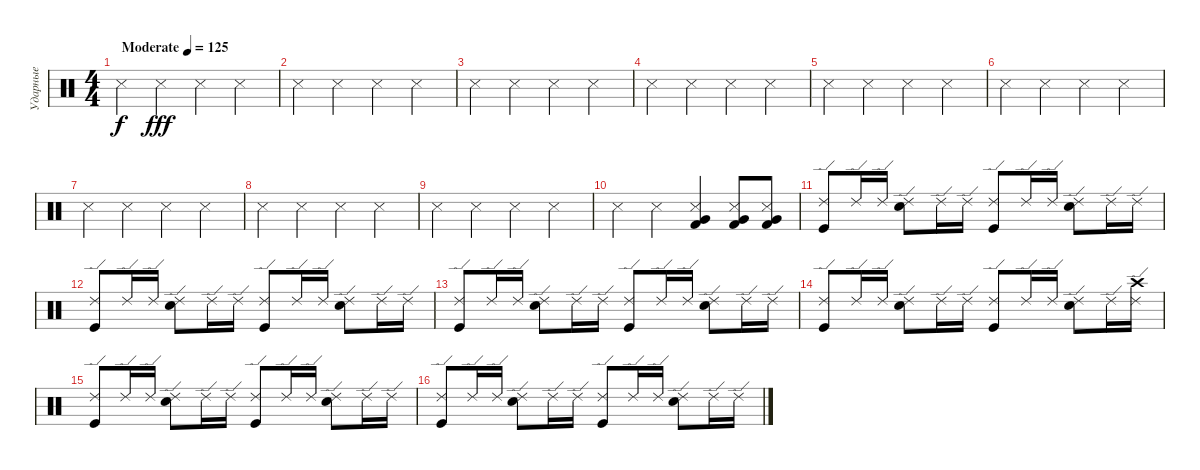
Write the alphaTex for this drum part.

\track ("Ударные" "Ударные") {instrument percussion}
\staff {score}
\articulation defaults
\ts (4 4)
\tempo (125 "Moderate")
\clef neutral
\ks c "Metronome (hit)".4{dy f} "Metronome (hit)".4{dy fff} "Metronome (hit)".4 "Metronome (hit)".4
|
"Metronome (hit)".4 "Metronome (hit)".4 "Metronome (hit)".4 "Metronome (hit)".4 |
"Metronome (hit)".4 "Metronome (hit)".4 "Metronome (hit)".4 "Metronome (hit)".4 |
"Metronome (hit)".4 "Metronome (hit)".4 "Metronome (hit)".4 "Metronome (hit)".4 |
"Metronome (hit)".4 "Metronome (hit)".4 "Metronome (hit)".4 "Metronome (hit)".4 |
"Metronome (hit)".4 "Metronome (hit)".4 "Metronome (hit)".4 "Metronome (hit)".4 |
"Metronome (hit)".4 "Metronome (hit)".4 "Metronome (hit)".4 "Metronome (hit)".4 |
"Metronome (hit)".4 "Metronome (hit)".4 "Metronome (hit)".4 "Metronome (hit)".4 |
"Metronome (hit)".4 "Metronome (hit)".4 "Metronome (hit)".4 "Metronome (hit)".4 |
"Metronome (hit)".4 "Metronome (hit)".4 ("Metronome (hit)" "Very Low Tom (hit)" "Kick (hit) 2").4 ("Metronome (hit)" "Very Low Tom (hit)" "Kick (hit) 2").8 ("Metronome (hit)" "Very Low Tom (hit)" "Kick (hit) 2").8 |
("Ride (edge) 2" "Kick (hit)").8 "Ride (edge) 2".16 "Ride (edge) 2".16 ("Ride (edge) 2" "Snare (hit) 2").8 "Ride (edge) 2".16 "Ride (edge) 2".16 ("Ride (edge) 2" "Kick (hit)").8 "Ride (edge) 2".16 "Ride (edge) 2".16 ("Ride (edge) 2" "Snare (hit) 2").8 "Ride (edge) 2".16 "Ride (edge) 2".16 |
("Ride (edge) 2" "Kick (hit)").8 "Ride (edge) 2".16 "Ride (edge) 2".16 ("Ride (edge) 2" "Snare (hit) 2").8 "Ride (edge) 2".16 "Ride (edge) 2".16 ("Ride (edge) 2" "Kick (hit)").8 "Ride (edge) 2".16 "Ride (edge) 2".16 ("Ride (edge) 2" "Snare (hit) 2").8 "Ride (edge) 2".16 "Ride (edge) 2".16 |
("Ride (edge) 2" "Kick (hit)").8 "Ride (edge) 2".16 "Ride (edge) 2".16 ("Ride (edge) 2" "Snare (hit) 2").8 "Ride (edge) 2".16 "Ride (edge) 2".16 ("Ride (edge) 2" "Kick (hit)").8 "Ride (edge) 2".16 "Ride (edge) 2".16 ("Ride (edge) 2" "Snare (hit) 2").8 "Ride (edge) 2".16 "Ride (edge) 2".16 |
("Ride (edge) 2" "Kick (hit)").8 "Ride (edge) 2".16 "Ride (edge) 2".16 ("Ride (edge) 2" "Snare (hit) 2").8 "Ride (edge) 2".16 "Ride (edge) 2".16 ("Ride (edge) 2" "Kick (hit)").8 "Ride (edge) 2".16 "Ride (edge) 2".16 ("Ride (edge) 2" "Snare (hit) 2").8 "Ride (edge) 2".16 ("Ride (edge) 2" "Crash high (hit)").16 |
("Ride (edge) 2" "Kick (hit)").8 "Ride (edge) 2".16 "Ride (edge) 2".16 ("Ride (edge) 2" "Snare (hit) 2").8 "Ride (edge) 2".16 "Ride (edge) 2".16 ("Ride (edge) 2" "Kick (hit)").8 "Ride (edge) 2".16 "Ride (edge) 2".16 ("Ride (edge) 2" "Snare (hit) 2").8 "Ride (edge) 2".16 "Ride (edge) 2".16 |
("Ride (edge) 2" "Kick (hit)").8 "Ride (edge) 2".16 "Ride (edge) 2".16 ("Ride (edge) 2" "Snare (hit) 2").8 "Ride (edge) 2".16 "Ride (edge) 2".16 ("Ride (edge) 2" "Kick (hit)").8 "Ride (edge) 2".16 "Ride (edge) 2".16 ("Ride (edge) 2" "Snare (hit) 2").8 "Ride (edge) 2".16 "Ride (edge) 2".16
